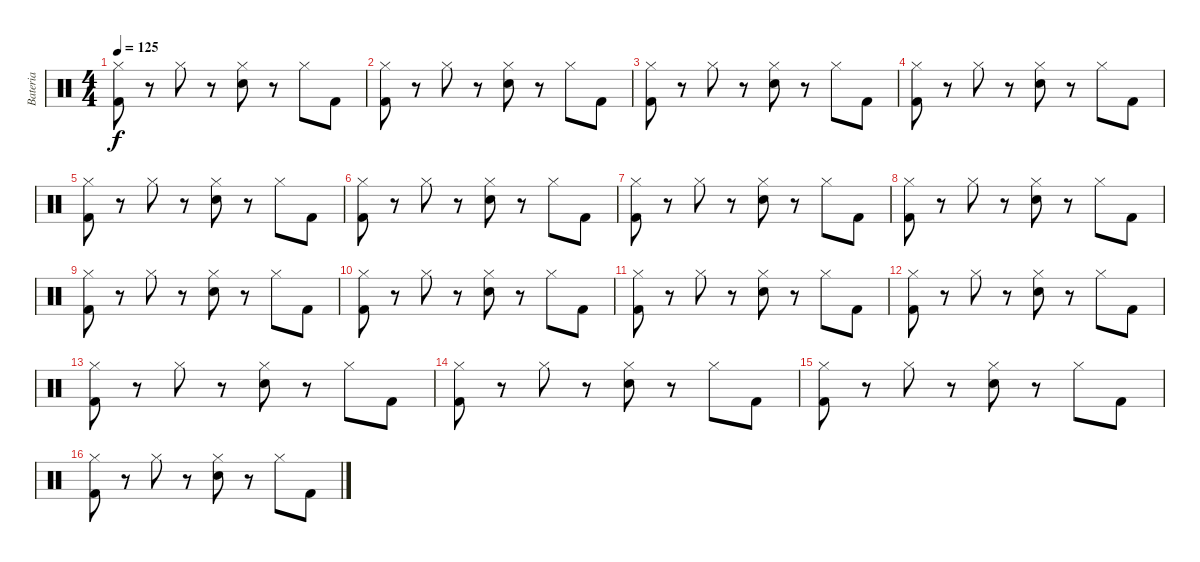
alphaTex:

\track ("Bateria" "Bateria") {instrument percussion}
\staff {score}
\articulation defaults
\ts (4 4)
\tempo 125
\clef neutral
\ks c
("Hi-Hat (closed)" "Kick (hit) 2").8{dy f} r.8 "Hi-Hat (closed)".8 r.8 ("Hi-Hat (closed)" "Snare (hit) 2").8 r.8 "Hi-Hat (closed)".8 "Kick (hit) 2".8 |
("Hi-Hat (closed)" "Kick (hit) 2").8 r.8 "Hi-Hat (closed)".8 r.8 ("Hi-Hat (closed)" "Snare (hit) 2").8 r.8 "Hi-Hat (closed)".8 "Kick (hit) 2".8 |
("Hi-Hat (closed)" "Kick (hit) 2").8 r.8 "Hi-Hat (closed)".8 r.8 ("Hi-Hat (closed)" "Snare (hit) 2").8 r.8 "Hi-Hat (closed)".8 "Kick (hit) 2".8 |
("Hi-Hat (closed)" "Kick (hit) 2").8 r.8 "Hi-Hat (closed)".8 r.8 ("Hi-Hat (closed)" "Snare (hit) 2").8 r.8 "Hi-Hat (closed)".8 "Kick (hit) 2".8 |
("Hi-Hat (closed)" "Kick (hit) 2").8 r.8 "Hi-Hat (closed)".8 r.8 ("Hi-Hat (closed)" "Snare (hit) 2").8 r.8 "Hi-Hat (closed)".8 "Kick (hit) 2".8 |
("Hi-Hat (closed)" "Kick (hit) 2").8 r.8 "Hi-Hat (closed)".8 r.8 ("Hi-Hat (closed)" "Snare (hit) 2").8 r.8 "Hi-Hat (closed)".8 "Kick (hit) 2".8 |
("Hi-Hat (closed)" "Kick (hit) 2").8 r.8 "Hi-Hat (closed)".8 r.8 ("Hi-Hat (closed)" "Snare (hit) 2").8 r.8 "Hi-Hat (closed)".8 "Kick (hit) 2".8 |
("Hi-Hat (closed)" "Kick (hit) 2").8 r.8 "Hi-Hat (closed)".8 r.8 ("Hi-Hat (closed)" "Snare (hit) 2").8 r.8 "Hi-Hat (closed)".8 "Kick (hit) 2".8 |
("Hi-Hat (closed)" "Kick (hit) 2").8 r.8 "Hi-Hat (closed)".8 r.8 ("Hi-Hat (closed)" "Snare (hit) 2").8 r.8 "Hi-Hat (closed)".8 "Kick (hit) 2".8 |
("Hi-Hat (closed)" "Kick (hit) 2").8 r.8 "Hi-Hat (closed)".8 r.8 ("Hi-Hat (closed)" "Snare (hit) 2").8 r.8 "Hi-Hat (closed)".8 "Kick (hit) 2".8 |
("Hi-Hat (closed)" "Kick (hit) 2").8 r.8 "Hi-Hat (closed)".8 r.8 ("Hi-Hat (closed)" "Snare (hit) 2").8 r.8 "Hi-Hat (closed)".8 "Kick (hit) 2".8 |
("Hi-Hat (closed)" "Kick (hit) 2").8 r.8 "Hi-Hat (closed)".8 r.8 ("Hi-Hat (closed)" "Snare (hit) 2").8 r.8 "Hi-Hat (closed)".8 "Kick (hit) 2".8 |
("Hi-Hat (closed)" "Kick (hit) 2").8 r.8 "Hi-Hat (closed)".8 r.8 ("Hi-Hat (closed)" "Snare (hit) 2").8 r.8 "Hi-Hat (closed)".8 "Kick (hit) 2".8 |
("Hi-Hat (closed)" "Kick (hit) 2").8 r.8 "Hi-Hat (closed)".8 r.8 ("Hi-Hat (closed)" "Snare (hit) 2").8 r.8 "Hi-Hat (closed)".8 "Kick (hit) 2".8 |
("Hi-Hat (closed)" "Kick (hit) 2").8 r.8 "Hi-Hat (closed)".8 r.8 ("Hi-Hat (closed)" "Snare (hit) 2").8 r.8 "Hi-Hat (closed)".8 "Kick (hit) 2".8 |
("Hi-Hat (closed)" "Kick (hit) 2").8 r.8 "Hi-Hat (closed)".8 r.8 ("Hi-Hat (closed)" "Snare (hit) 2").8 r.8 "Hi-Hat (closed)".8 "Kick (hit) 2".8
